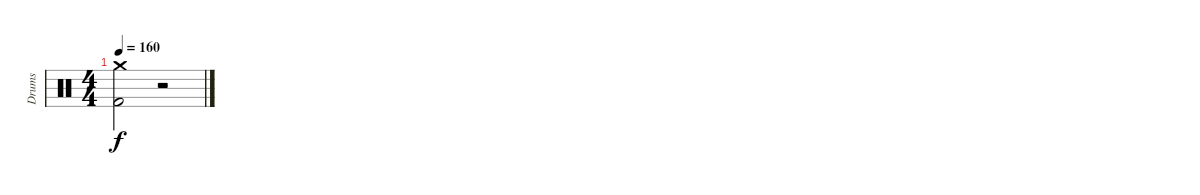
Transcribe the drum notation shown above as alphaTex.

\track ("Drums" "Drums") {instrument percussion}
\staff {score}
\articulation defaults
\ts (4 4)
\tempo 160
\clef neutral
\ks c
("Crash medium (hit)" "Kick (hit) 2").2{dy f} r.2
